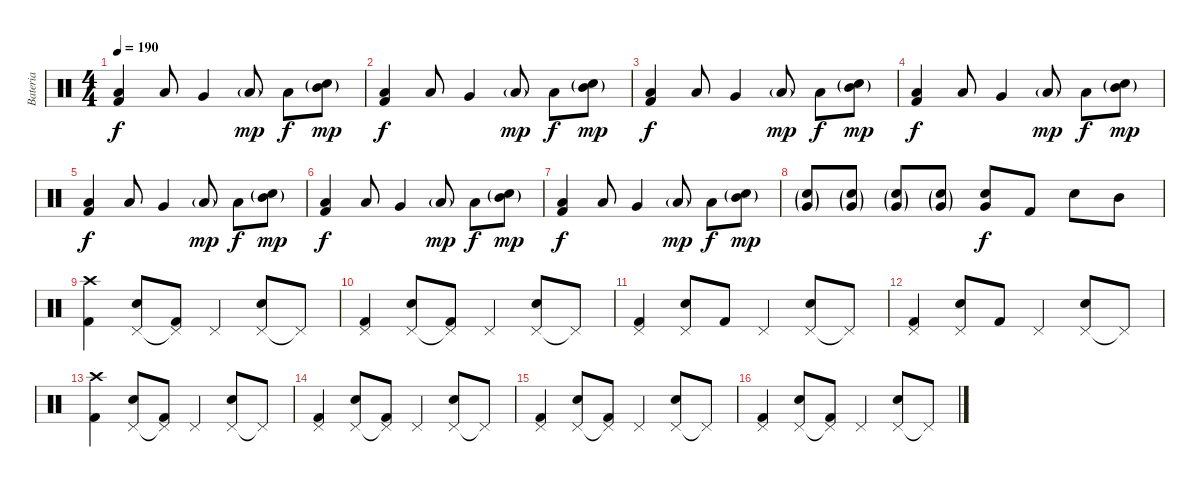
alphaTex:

\track ("Bateria" "Bateria") {instrument percussion}
\staff {score}
\articulation defaults
\ts (4 4)
\tempo 190
\clef neutral
\ks c
("Low Tom (hit)" "Kick (hit) 2").4{dy f} "Low Tom (hit)".8 "Very Low Tom (hit)".4 "Low Tom (hit)"{g}.8{dy mp} "Low Tom (hit)".8{dy f} ("Mid Tom (hit)"{g} "Snare (hit) 2"{g}).8{dy mp} |
("Low Tom (hit)" "Kick (hit) 2").4{dy f} "Low Tom (hit)".8 "Very Low Tom (hit)".4 "Low Tom (hit)"{g}.8{dy mp} "Low Tom (hit)".8{dy f} ("Mid Tom (hit)"{g} "Snare (hit) 2"{g}).8{dy mp} |
("Low Tom (hit)" "Kick (hit) 2").4{dy f} "Low Tom (hit)".8 "Very Low Tom (hit)".4 "Low Tom (hit)"{g}.8{dy mp} "Low Tom (hit)".8{dy f} ("Mid Tom (hit)"{g} "Snare (hit) 2"{g}).8{dy mp} |
("Low Tom (hit)" "Kick (hit) 2").4{dy f} "Low Tom (hit)".8 "Very Low Tom (hit)".4 "Low Tom (hit)"{g}.8{dy mp} "Low Tom (hit)".8{dy f} ("Mid Tom (hit)"{g} "Snare (hit) 2"{g}).8{dy mp} |
("Low Tom (hit)" "Kick (hit) 2").4{dy f} "Low Tom (hit)".8 "Very Low Tom (hit)".4 "Low Tom (hit)"{g}.8{dy mp} "Low Tom (hit)".8{dy f} ("Mid Tom (hit)"{g} "Snare (hit) 2"{g}).8{dy mp} |
("Low Tom (hit)" "Kick (hit) 2").4{dy f} "Low Tom (hit)".8 "Very Low Tom (hit)".4 "Low Tom (hit)"{g}.8{dy mp} "Low Tom (hit)".8{dy f} ("Mid Tom (hit)"{g} "Snare (hit) 2"{g}).8{dy mp} |
("Low Tom (hit)" "Kick (hit) 2").4{dy f} "Low Tom (hit)".8 "Very Low Tom (hit)".4 "Low Tom (hit)"{g}.8{dy mp} "Low Tom (hit)".8{dy f} ("Mid Tom (hit)"{g} "Snare (hit) 2"{g}).8{dy mp} |
("Very Low Tom (hit)"{g} "Snare (hit) 2"{g}).8 ("Very Low Tom (hit)"{g} "Snare (hit) 2"{g}).8 ("Very Low Tom (hit)"{g} "Snare (hit) 2"{g}).8 ("Very Low Tom (hit)"{g} "Snare (hit) 2"{g}).8 ("Very Low Tom (hit)" "Snare (hit) 2").8{dy f} "Kick (hit) 2".8 "Snare (hit) 2".8 "Mid Tom (hit)".8 |
("Crash high (hit)" "Kick (hit) 2").4 ("Pedal Hi-Hat (hit)" "Snare (hit) 2").8 ("Pedal Hi-Hat (hit)"{t} "Kick (hit) 2").8 "Pedal Hi-Hat (hit)".4 ("Pedal Hi-Hat (hit)" "Snare (hit) 2").8 "Pedal Hi-Hat (hit)"{t}.8 |
("Pedal Hi-Hat (hit)" "Kick (hit) 2").4 ("Pedal Hi-Hat (hit)" "Snare (hit) 2").8 ("Pedal Hi-Hat (hit)"{t} "Kick (hit) 2").8 "Pedal Hi-Hat (hit)".4 ("Pedal Hi-Hat (hit)" "Snare (hit) 2").8 "Pedal Hi-Hat (hit)"{t}.8 |
("Pedal Hi-Hat (hit)" "Kick (hit) 2").4 ("Pedal Hi-Hat (hit)" "Snare (hit) 2").8 "Kick (hit) 2".8 "Pedal Hi-Hat (hit)".4 ("Pedal Hi-Hat (hit)" "Snare (hit) 2").8 "Pedal Hi-Hat (hit)"{t}.8 |
("Pedal Hi-Hat (hit)" "Kick (hit) 2").4 ("Pedal Hi-Hat (hit)" "Snare (hit) 2").8 "Kick (hit) 2".8 "Pedal Hi-Hat (hit)".4 ("Pedal Hi-Hat (hit)" "Snare (hit) 2").8 "Pedal Hi-Hat (hit)"{t}.8 |
("Crash high (hit)" "Kick (hit) 2").4 ("Pedal Hi-Hat (hit)" "Snare (hit) 2").8 ("Pedal Hi-Hat (hit)"{t} "Kick (hit) 2").8 "Pedal Hi-Hat (hit)".4 ("Pedal Hi-Hat (hit)" "Snare (hit) 2").8 "Pedal Hi-Hat (hit)"{t}.8 |
("Pedal Hi-Hat (hit)" "Kick (hit) 2").4 ("Pedal Hi-Hat (hit)" "Snare (hit) 2").8 ("Pedal Hi-Hat (hit)"{t} "Kick (hit) 2").8 "Pedal Hi-Hat (hit)".4 ("Pedal Hi-Hat (hit)" "Snare (hit) 2").8 "Pedal Hi-Hat (hit)"{t}.8 |
("Pedal Hi-Hat (hit)" "Kick (hit) 2").4 ("Pedal Hi-Hat (hit)" "Snare (hit) 2").8 ("Pedal Hi-Hat (hit)"{t} "Kick (hit) 2").8 "Pedal Hi-Hat (hit)".4 ("Pedal Hi-Hat (hit)" "Snare (hit) 2").8 "Pedal Hi-Hat (hit)"{t}.8 |
("Pedal Hi-Hat (hit)" "Kick (hit) 2").4 ("Pedal Hi-Hat (hit)" "Snare (hit) 2").8 ("Pedal Hi-Hat (hit)"{t} "Kick (hit) 2").8 "Pedal Hi-Hat (hit)".4 ("Pedal Hi-Hat (hit)" "Snare (hit) 2").8 "Pedal Hi-Hat (hit)"{t}.8
